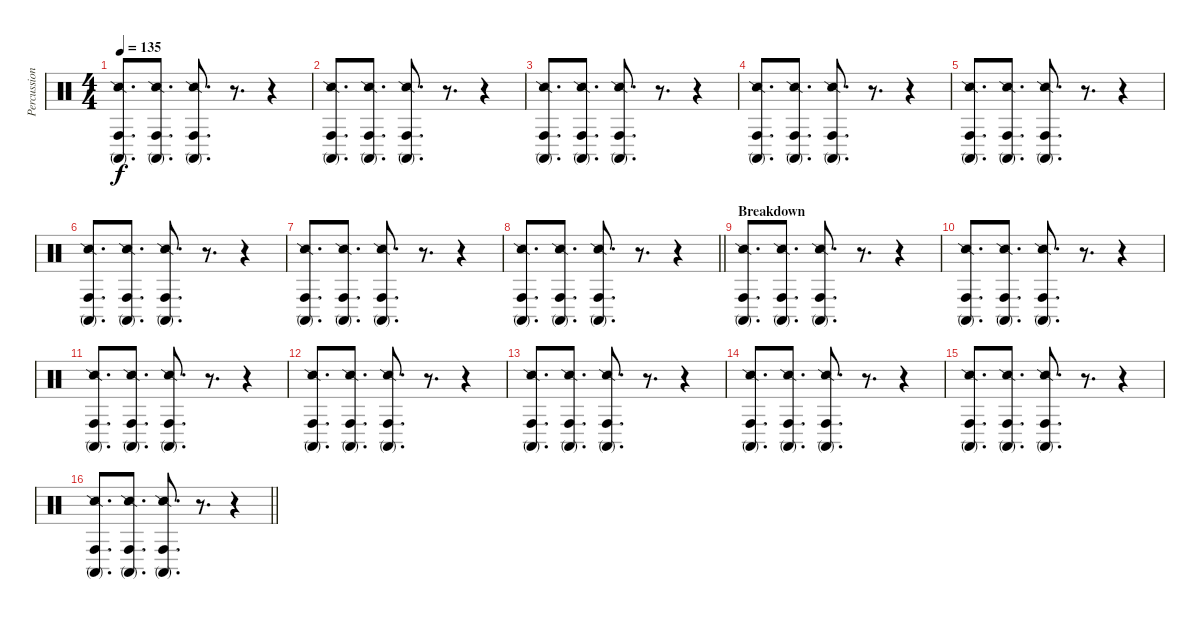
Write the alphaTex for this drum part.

\track ("Percussion FX" "Percussion") {instrument percussion}
\staff {score}
\articulation defaults
\ts (4 4)
\tempo 135
\clef neutral
\ks c
("Snare (side stick) 2" "Conga high (mute)" "Conga high (hit)").8{d dy f} ("Snare (side stick) 2" "Conga high (mute)" "Conga high (hit)").8{d} ("Snare (side stick) 2" "Conga high (mute)" "Conga high (hit)").8{d} r.8{d} r.4 |
("Snare (side stick) 2" "Conga high (mute)" "Conga high (hit)").8{d} ("Snare (side stick) 2" "Conga high (mute)" "Conga high (hit)").8{d} ("Snare (side stick) 2" "Conga high (mute)" "Conga high (hit)").8{d} r.8{d} r.4 |
("Snare (side stick) 2" "Conga high (mute)" "Conga high (hit)").8{d} ("Snare (side stick) 2" "Conga high (mute)" "Conga high (hit)").8{d} ("Snare (side stick) 2" "Conga high (mute)" "Conga high (hit)").8{d} r.8{d} r.4 |
("Snare (side stick) 2" "Conga high (mute)" "Conga high (hit)").8{d} ("Snare (side stick) 2" "Conga high (mute)" "Conga high (hit)").8{d} ("Snare (side stick) 2" "Conga high (mute)" "Conga high (hit)").8{d} r.8{d} r.4 |
("Snare (side stick) 2" "Conga high (mute)" "Conga high (hit)").8{d} ("Snare (side stick) 2" "Conga high (mute)" "Conga high (hit)").8{d} ("Snare (side stick) 2" "Conga high (mute)" "Conga high (hit)").8{d} r.8{d} r.4 |
("Snare (side stick) 2" "Conga high (mute)" "Conga high (hit)").8{d} ("Snare (side stick) 2" "Conga high (mute)" "Conga high (hit)").8{d} ("Snare (side stick) 2" "Conga high (mute)" "Conga high (hit)").8{d} r.8{d} r.4 |
("Snare (side stick) 2" "Conga high (mute)" "Conga high (hit)").8{d} ("Snare (side stick) 2" "Conga high (mute)" "Conga high (hit)").8{d} ("Snare (side stick) 2" "Conga high (mute)" "Conga high (hit)").8{d} r.8{d} r.4 |
\barLineRight lightlight
("Snare (side stick) 2" "Conga high (mute)" "Conga high (hit)").8{d} ("Snare (side stick) 2" "Conga high (mute)" "Conga high (hit)").8{d} ("Snare (side stick) 2" "Conga high (mute)" "Conga high (hit)").8{d} r.8{d} r.4 |
\section ("" "Breakdown")
("Snare (side stick) 2" "Conga high (mute)" "Conga high (hit)").8{d} ("Snare (side stick) 2" "Conga high (mute)" "Conga high (hit)").8{d} ("Snare (side stick) 2" "Conga high (mute)" "Conga high (hit)").8{d} r.8{d} r.4 |
("Snare (side stick) 2" "Conga high (mute)" "Conga high (hit)").8{d} ("Snare (side stick) 2" "Conga high (mute)" "Conga high (hit)").8{d} ("Snare (side stick) 2" "Conga high (mute)" "Conga high (hit)").8{d} r.8{d} r.4 |
("Snare (side stick) 2" "Conga high (mute)" "Conga high (hit)").8{d} ("Snare (side stick) 2" "Conga high (mute)" "Conga high (hit)").8{d} ("Snare (side stick) 2" "Conga high (mute)" "Conga high (hit)").8{d} r.8{d} r.4 |
("Snare (side stick) 2" "Conga high (mute)" "Conga high (hit)").8{d} ("Snare (side stick) 2" "Conga high (mute)" "Conga high (hit)").8{d} ("Snare (side stick) 2" "Conga high (mute)" "Conga high (hit)").8{d} r.8{d} r.4 |
("Snare (side stick) 2" "Conga high (mute)" "Conga high (hit)").8{d} ("Snare (side stick) 2" "Conga high (mute)" "Conga high (hit)").8{d} ("Snare (side stick) 2" "Conga high (mute)" "Conga high (hit)").8{d} r.8{d} r.4 |
("Snare (side stick) 2" "Conga high (mute)" "Conga high (hit)").8{d} ("Snare (side stick) 2" "Conga high (mute)" "Conga high (hit)").8{d} ("Snare (side stick) 2" "Conga high (mute)" "Conga high (hit)").8{d} r.8{d} r.4 |
("Snare (side stick) 2" "Conga high (mute)" "Conga high (hit)").8{d} ("Snare (side stick) 2" "Conga high (mute)" "Conga high (hit)").8{d} ("Snare (side stick) 2" "Conga high (mute)" "Conga high (hit)").8{d} r.8{d} r.4 |
\barLineRight lightlight
("Snare (side stick) 2" "Conga high (mute)" "Conga high (hit)").8{d} ("Snare (side stick) 2" "Conga high (mute)" "Conga high (hit)").8{d} ("Snare (side stick) 2" "Conga high (mute)" "Conga high (hit)").8{d} r.8{d} r.4
